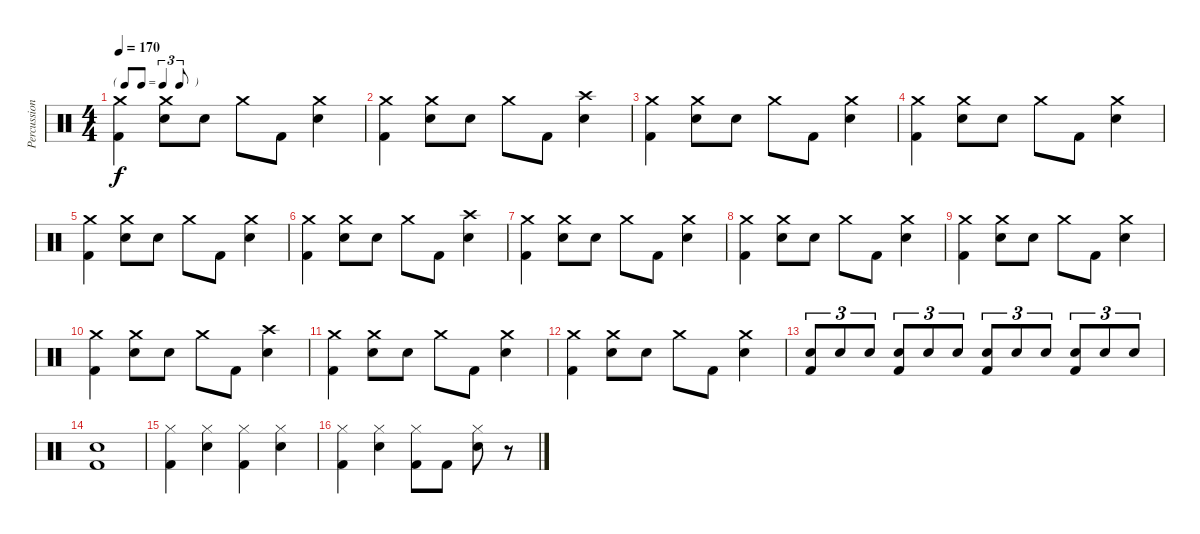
\track ("Percussion" "Percussion") {instrument percussion}
\staff {score}
\articulation defaults
\ts (4 4)
\tf triplet8th
\tempo 170
\clef neutral
\ks c
("Crash medium (hit)" "Kick (hit) 2").4{dy f} ("Crash medium (hit)" "Electric Snare (hit)").8 "Electric Snare (hit)".8 "Crash medium (hit)".8 "Kick (hit) 2".8 ("Crash medium (hit)" "Electric Snare (hit)").4 |
("Crash medium (hit)" "Kick (hit) 2").4 ("Crash medium (hit)" "Electric Snare (hit)").8 "Electric Snare (hit)".8 "Crash medium (hit)".8 "Kick (hit) 2".8 ("Crash high (hit)" "Electric Snare (hit)").4 |
("Crash medium (hit)" "Kick (hit) 2").4 ("Crash medium (hit)" "Electric Snare (hit)").8 "Electric Snare (hit)".8 "Crash medium (hit)".8 "Kick (hit) 2".8 ("Crash medium (hit)" "Electric Snare (hit)").4 |
("Crash medium (hit)" "Kick (hit) 2").4 ("Crash medium (hit)" "Electric Snare (hit)").8 "Electric Snare (hit)".8 "Crash medium (hit)".8 "Kick (hit) 2".8 ("Crash medium (hit)" "Electric Snare (hit)").4 |
("Crash medium (hit)" "Kick (hit) 2").4 ("Crash medium (hit)" "Electric Snare (hit)").8 "Electric Snare (hit)".8 "Crash medium (hit)".8 "Kick (hit) 2".8 ("Crash medium (hit)" "Electric Snare (hit)").4 |
("Crash medium (hit)" "Kick (hit) 2").4 ("Crash medium (hit)" "Electric Snare (hit)").8 "Electric Snare (hit)".8 "Crash medium (hit)".8 "Kick (hit) 2".8 ("Crash high (hit)" "Electric Snare (hit)").4 |
("Crash medium (hit)" "Kick (hit) 2").4 ("Crash medium (hit)" "Electric Snare (hit)").8 "Electric Snare (hit)".8 "Crash medium (hit)".8 "Kick (hit) 2".8 ("Crash medium (hit)" "Electric Snare (hit)").4 |
("Crash medium (hit)" "Kick (hit) 2").4 ("Crash medium (hit)" "Electric Snare (hit)").8 "Electric Snare (hit)".8 "Crash medium (hit)".8 "Kick (hit) 2".8 ("Crash medium (hit)" "Electric Snare (hit)").4 |
("Crash medium (hit)" "Kick (hit) 2").4 ("Crash medium (hit)" "Electric Snare (hit)").8 "Electric Snare (hit)".8 "Crash medium (hit)".8 "Kick (hit) 2".8 ("Crash medium (hit)" "Electric Snare (hit)").4 |
("Crash medium (hit)" "Kick (hit) 2").4 ("Crash medium (hit)" "Electric Snare (hit)").8 "Electric Snare (hit)".8 "Crash medium (hit)".8 "Kick (hit) 2".8 ("Crash high (hit)" "Electric Snare (hit)").4 |
("Crash medium (hit)" "Kick (hit) 2").4 ("Crash medium (hit)" "Electric Snare (hit)").8 "Electric Snare (hit)".8 "Crash medium (hit)".8 "Kick (hit) 2".8 ("Crash medium (hit)" "Electric Snare (hit)").4 |
("Crash medium (hit)" "Kick (hit) 2").4 ("Crash medium (hit)" "Electric Snare (hit)").8 "Electric Snare (hit)".8 "Crash medium (hit)".8 "Kick (hit) 2".8 ("Crash medium (hit)" "Electric Snare (hit)").4 |
("Electric Snare (hit)" "Kick (hit) 2").8{tu (3 2)} "Electric Snare (hit)".8{tu (3 2)} "Electric Snare (hit)".8{tu (3 2)} ("Electric Snare (hit)" "Kick (hit) 2").8{tu (3 2)} "Electric Snare (hit)".8{tu (3 2)} "Electric Snare (hit)".8{tu (3 2)} ("Electric Snare (hit)" "Kick (hit) 2").8{tu (3 2)} "Electric Snare (hit)".8{tu (3 2)} "Electric Snare (hit)".8{tu (3 2)} ("Electric Snare (hit)" "Kick (hit) 2").8{tu (3 2)} "Electric Snare (hit)".8{tu (3 2)} "Electric Snare (hit)".8{tu (3 2)} |
("Electric Snare (hit)" "Kick (hit) 2").1 |
("Hi-Hat (closed)" "Kick (hit) 2").4 ("Hi-Hat (closed)" "Electric Snare (hit)").4 ("Hi-Hat (closed)" "Kick (hit) 2").4 ("Hi-Hat (closed)" "Electric Snare (hit)").4 |
("Hi-Hat (closed)" "Kick (hit) 2").4 ("Hi-Hat (closed)" "Electric Snare (hit)").4 ("Hi-Hat (closed)" "Kick (hit) 2").8 "Kick (hit) 2".8 ("Hi-Hat (closed)" "Electric Snare (hit)").8 r.8
